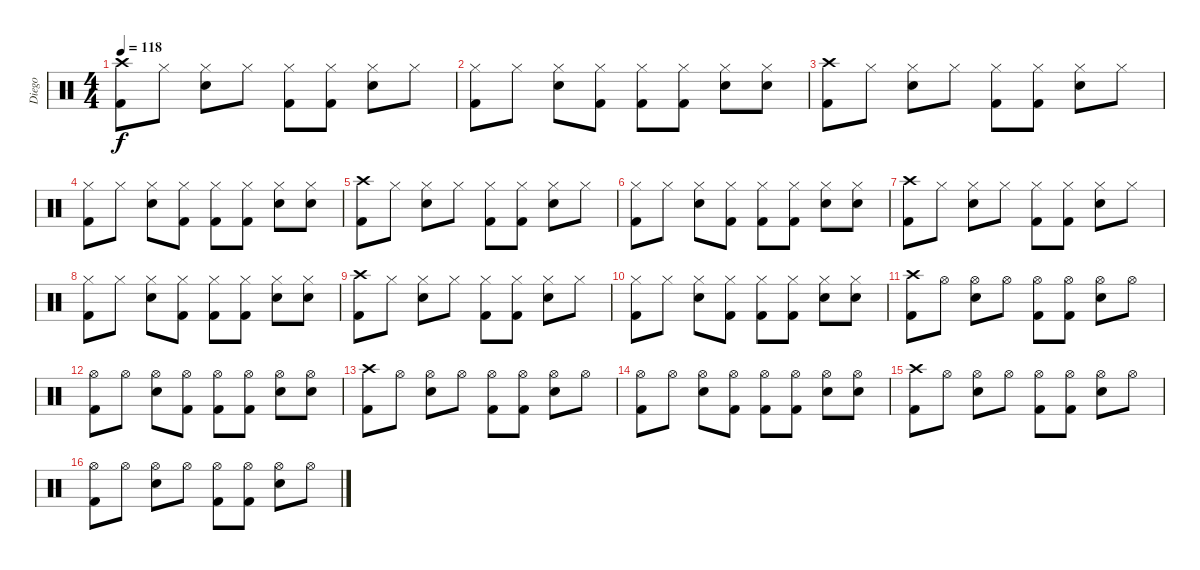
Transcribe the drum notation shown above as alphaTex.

\track ("Diego" "Diego") {instrument percussion}
\staff {score}
\articulation defaults
\ts (4 4)
\tempo 118
\clef neutral
\ks c
("Crash high (hit)" "Kick (hit) 2").8{dy f} "Hi-Hat (closed)".8 ("Hi-Hat (closed)" "Snare (hit) 2").8 "Hi-Hat (closed)".8 ("Hi-Hat (closed)" "Kick (hit) 2").8 ("Hi-Hat (closed)" "Kick (hit) 2").8 ("Hi-Hat (closed)" "Snare (hit) 2").8 "Hi-Hat (closed)".8 |
("Hi-Hat (closed)" "Kick (hit) 2").8 "Hi-Hat (closed)".8 ("Hi-Hat (closed)" "Snare (hit) 2").8 ("Hi-Hat (closed)" "Kick (hit) 2").8 ("Hi-Hat (closed)" "Kick (hit) 2").8 ("Hi-Hat (closed)" "Kick (hit) 2").8 ("Hi-Hat (closed)" "Snare (hit) 2").8 ("Hi-Hat (closed)" "Snare (hit) 2").8 |
("Crash high (hit)" "Kick (hit) 2").8 "Hi-Hat (closed)".8 ("Hi-Hat (closed)" "Snare (hit) 2").8 "Hi-Hat (closed)".8 ("Hi-Hat (closed)" "Kick (hit) 2").8 ("Hi-Hat (closed)" "Kick (hit) 2").8 ("Hi-Hat (closed)" "Snare (hit) 2").8 "Hi-Hat (closed)".8 |
("Hi-Hat (closed)" "Kick (hit) 2").8 "Hi-Hat (closed)".8 ("Hi-Hat (closed)" "Snare (hit) 2").8 ("Hi-Hat (closed)" "Kick (hit) 2").8 ("Hi-Hat (closed)" "Kick (hit) 2").8 ("Hi-Hat (closed)" "Kick (hit) 2").8 ("Hi-Hat (closed)" "Snare (hit) 2").8 ("Hi-Hat (closed)" "Snare (hit) 2").8 |
("Crash high (hit)" "Kick (hit) 2").8 "Hi-Hat (closed)".8 ("Hi-Hat (closed)" "Snare (hit) 2").8 "Hi-Hat (closed)".8 ("Hi-Hat (closed)" "Kick (hit) 2").8 ("Hi-Hat (closed)" "Kick (hit) 2").8 ("Hi-Hat (closed)" "Snare (hit) 2").8 "Hi-Hat (closed)".8 |
("Hi-Hat (closed)" "Kick (hit) 2").8 "Hi-Hat (closed)".8 ("Hi-Hat (closed)" "Snare (hit) 2").8 ("Hi-Hat (closed)" "Kick (hit) 2").8 ("Hi-Hat (closed)" "Kick (hit) 2").8 ("Hi-Hat (closed)" "Kick (hit) 2").8 ("Hi-Hat (closed)" "Snare (hit) 2").8 ("Hi-Hat (closed)" "Snare (hit) 2").8 |
("Crash high (hit)" "Kick (hit) 2").8 "Hi-Hat (closed)".8 ("Hi-Hat (closed)" "Snare (hit) 2").8 "Hi-Hat (closed)".8 ("Hi-Hat (closed)" "Kick (hit) 2").8 ("Hi-Hat (closed)" "Kick (hit) 2").8 ("Hi-Hat (closed)" "Snare (hit) 2").8 "Hi-Hat (closed)".8 |
("Hi-Hat (closed)" "Kick (hit) 2").8 "Hi-Hat (closed)".8 ("Hi-Hat (closed)" "Snare (hit) 2").8 ("Hi-Hat (closed)" "Kick (hit) 2").8 ("Hi-Hat (closed)" "Kick (hit) 2").8 ("Hi-Hat (closed)" "Kick (hit) 2").8 ("Hi-Hat (closed)" "Snare (hit) 2").8 ("Hi-Hat (closed)" "Snare (hit) 2").8 |
("Crash high (hit)" "Kick (hit) 2").8 "Hi-Hat (closed)".8 ("Hi-Hat (closed)" "Snare (hit) 2").8 "Hi-Hat (closed)".8 ("Hi-Hat (closed)" "Kick (hit) 2").8 ("Hi-Hat (closed)" "Kick (hit) 2").8 ("Hi-Hat (closed)" "Snare (hit) 2").8 "Hi-Hat (closed)".8 |
("Hi-Hat (closed)" "Kick (hit) 2").8 "Hi-Hat (closed)".8 ("Hi-Hat (closed)" "Snare (hit) 2").8 ("Hi-Hat (closed)" "Kick (hit) 2").8 ("Hi-Hat (closed)" "Kick (hit) 2").8 ("Hi-Hat (closed)" "Kick (hit) 2").8 ("Hi-Hat (closed)" "Snare (hit) 2").8 ("Hi-Hat (closed)" "Snare (hit) 2").8 |
("Crash high (hit)" "Kick (hit) 2").8 "Hi-Hat (open)".8 ("Hi-Hat (open)" "Snare (hit) 2").8 "Hi-Hat (open)".8 ("Hi-Hat (open)" "Kick (hit) 2").8 ("Hi-Hat (open)" "Kick (hit) 2").8 ("Hi-Hat (open)" "Snare (hit) 2").8 "Hi-Hat (open)".8 |
("Hi-Hat (open)" "Kick (hit) 2").8 "Hi-Hat (open)".8 ("Hi-Hat (open)" "Snare (hit) 2").8 ("Hi-Hat (open)" "Kick (hit) 2").8 ("Hi-Hat (open)" "Kick (hit) 2").8 ("Hi-Hat (open)" "Kick (hit) 2").8 ("Hi-Hat (open)" "Snare (hit) 2").8 ("Hi-Hat (open)" "Snare (hit) 2").8 |
("Crash high (hit)" "Kick (hit) 2").8 "Hi-Hat (open)".8 ("Hi-Hat (open)" "Snare (hit) 2").8 "Hi-Hat (open)".8 ("Hi-Hat (open)" "Kick (hit) 2").8 ("Hi-Hat (open)" "Kick (hit) 2").8 ("Hi-Hat (open)" "Snare (hit) 2").8 "Hi-Hat (open)".8 |
("Hi-Hat (open)" "Kick (hit) 2").8 "Hi-Hat (open)".8 ("Hi-Hat (open)" "Snare (hit) 2").8 ("Hi-Hat (open)" "Kick (hit) 2").8 ("Hi-Hat (open)" "Kick (hit) 2").8 ("Hi-Hat (open)" "Kick (hit) 2").8 ("Hi-Hat (open)" "Snare (hit) 2").8 ("Hi-Hat (open)" "Snare (hit) 2").8 |
("Crash high (hit)" "Kick (hit) 2").8 "Hi-Hat (open)".8 ("Hi-Hat (open)" "Snare (hit) 2").8 "Hi-Hat (open)".8 ("Hi-Hat (open)" "Kick (hit) 2").8 ("Hi-Hat (open)" "Kick (hit) 2").8 ("Hi-Hat (open)" "Snare (hit) 2").8 "Hi-Hat (open)".8 |
("Hi-Hat (open)" "Kick (hit) 2").8 "Hi-Hat (open)".8 ("Hi-Hat (open)" "Snare (hit) 2").8 "Hi-Hat (open)".8 ("Hi-Hat (open)" "Kick (hit) 2").8 ("Hi-Hat (open)" "Kick (hit) 2").8 ("Hi-Hat (open)" "Snare (hit) 2").8 "Hi-Hat (open)".8
